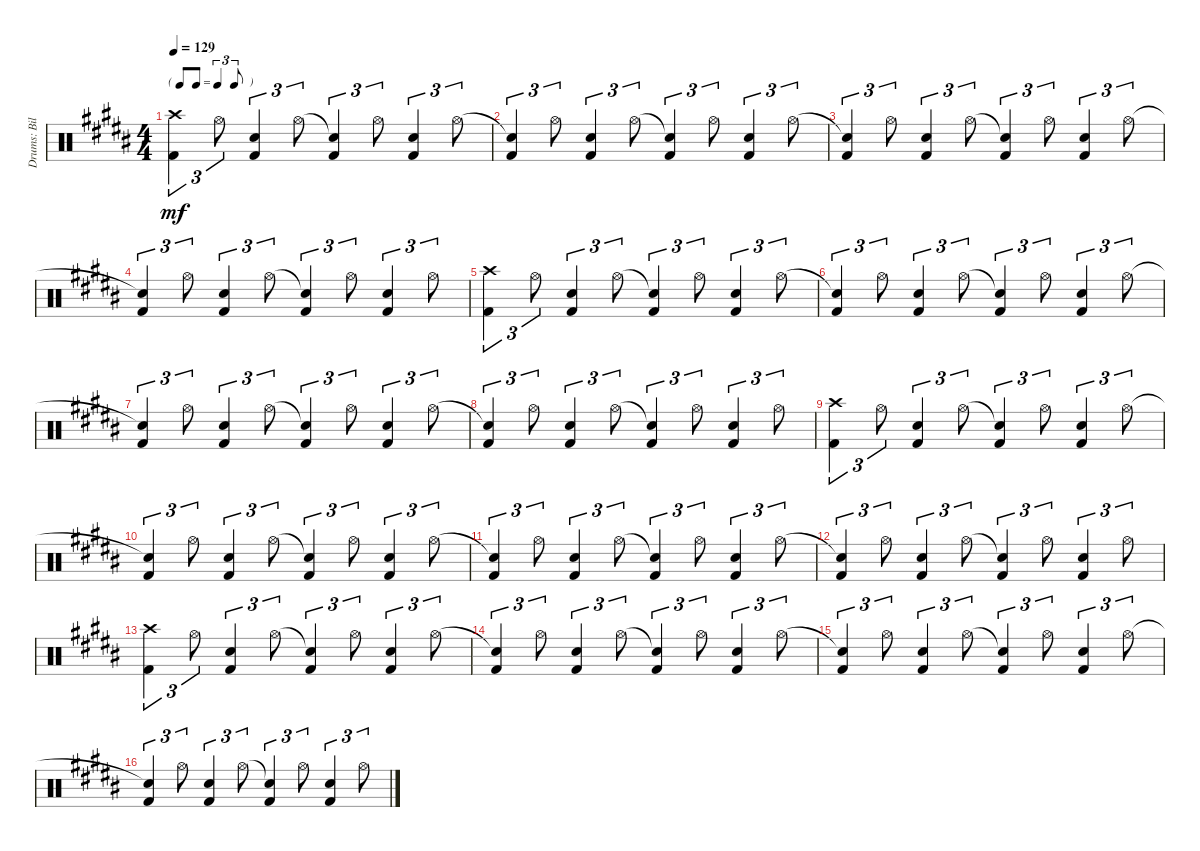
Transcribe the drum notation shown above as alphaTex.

\track ("Drums: Bill" "Drums: Bil") {instrument percussion}
\staff {score}
\articulation defaults
\ts (4 4)
\tf triplet8th
\tempo 129
\clef neutral
\ks b
("Crash high (hit)" "Kick (hit) 2").4{tu (3 2) dy mf} "Hi-Hat (open)".8{tu (3 2)} ("Electric Snare (hit)" "Kick (hit) 2").4{tu (3 2)} "Hi-Hat (open)".8{tu (3 2)} ("Snare (hit)"{t} "Kick (hit) 2").4{tu (3 2)} "Hi-Hat (open)".8{tu (3 2)} ("Electric Snare (hit)" "Kick (hit) 2").4{tu (3 2)} "Hi-Hat (open)".8{tu (3 2)} |
("Snare (hit)"{t} "Kick (hit) 2").4{tu (3 2)} "Hi-Hat (open)".8{tu (3 2)} ("Electric Snare (hit)" "Kick (hit) 2").4{tu (3 2)} "Hi-Hat (open)".8{tu (3 2)} ("Snare (hit)"{t} "Kick (hit) 2").4{tu (3 2)} "Hi-Hat (open)".8{tu (3 2)} ("Electric Snare (hit)" "Kick (hit) 2").4{tu (3 2)} "Hi-Hat (open)".8{tu (3 2)} |
("Snare (hit)"{t} "Kick (hit) 2").4{tu (3 2)} "Hi-Hat (open)".8{tu (3 2)} ("Electric Snare (hit)" "Kick (hit) 2").4{tu (3 2)} "Hi-Hat (open)".8{tu (3 2)} ("Snare (hit)"{t} "Kick (hit) 2").4{tu (3 2)} "Hi-Hat (open)".8{tu (3 2)} ("Electric Snare (hit)" "Kick (hit) 2").4{tu (3 2)} "Hi-Hat (open)".8{tu (3 2)} |
("Snare (hit)"{t} "Kick (hit) 2").4{tu (3 2)} "Hi-Hat (open)".8{tu (3 2)} ("Electric Snare (hit)" "Kick (hit) 2").4{tu (3 2)} "Hi-Hat (open)".8{tu (3 2)} ("Snare (hit)"{t} "Kick (hit) 2").4{tu (3 2)} "Hi-Hat (open)".8{tu (3 2)} ("Electric Snare (hit)" "Kick (hit) 2").4{tu (3 2)} "Hi-Hat (open)".8{tu (3 2)} |
("Crash high (hit)" "Kick (hit) 2").4{tu (3 2)} "Hi-Hat (open)".8{tu (3 2)} ("Electric Snare (hit)" "Kick (hit) 2").4{tu (3 2)} "Hi-Hat (open)".8{tu (3 2)} ("Snare (hit)"{t} "Kick (hit) 2").4{tu (3 2)} "Hi-Hat (open)".8{tu (3 2)} ("Electric Snare (hit)" "Kick (hit) 2").4{tu (3 2)} "Hi-Hat (open)".8{tu (3 2)} |
("Snare (hit)"{t} "Kick (hit) 2").4{tu (3 2)} "Hi-Hat (open)".8{tu (3 2)} ("Electric Snare (hit)" "Kick (hit) 2").4{tu (3 2)} "Hi-Hat (open)".8{tu (3 2)} ("Snare (hit)"{t} "Kick (hit) 2").4{tu (3 2)} "Hi-Hat (open)".8{tu (3 2)} ("Electric Snare (hit)" "Kick (hit) 2").4{tu (3 2)} "Hi-Hat (open)".8{tu (3 2)} |
("Snare (hit)"{t} "Kick (hit) 2").4{tu (3 2)} "Hi-Hat (open)".8{tu (3 2)} ("Electric Snare (hit)" "Kick (hit) 2").4{tu (3 2)} "Hi-Hat (open)".8{tu (3 2)} ("Snare (hit)"{t} "Kick (hit) 2").4{tu (3 2)} "Hi-Hat (open)".8{tu (3 2)} ("Electric Snare (hit)" "Kick (hit) 2").4{tu (3 2)} "Hi-Hat (open)".8{tu (3 2)} |
("Snare (hit)"{t} "Kick (hit) 2").4{tu (3 2)} "Hi-Hat (open)".8{tu (3 2)} ("Electric Snare (hit)" "Kick (hit) 2").4{tu (3 2)} "Hi-Hat (open)".8{tu (3 2)} ("Snare (hit)"{t} "Kick (hit) 2").4{tu (3 2)} "Hi-Hat (open)".8{tu (3 2)} ("Electric Snare (hit)" "Kick (hit) 2").4{tu (3 2)} "Hi-Hat (open)".8{tu (3 2)} |
("Crash high (hit)" "Kick (hit) 2").4{tu (3 2)} "Hi-Hat (open)".8{tu (3 2)} ("Electric Snare (hit)" "Kick (hit) 2").4{tu (3 2)} "Hi-Hat (open)".8{tu (3 2)} ("Snare (hit)"{t} "Kick (hit) 2").4{tu (3 2)} "Hi-Hat (open)".8{tu (3 2)} ("Electric Snare (hit)" "Kick (hit) 2").4{tu (3 2)} "Hi-Hat (open)".8{tu (3 2)} |
("Snare (hit)"{t} "Kick (hit) 2").4{tu (3 2)} "Hi-Hat (open)".8{tu (3 2)} ("Electric Snare (hit)" "Kick (hit) 2").4{tu (3 2)} "Hi-Hat (open)".8{tu (3 2)} ("Snare (hit)"{t} "Kick (hit) 2").4{tu (3 2)} "Hi-Hat (open)".8{tu (3 2)} ("Electric Snare (hit)" "Kick (hit) 2").4{tu (3 2)} "Hi-Hat (open)".8{tu (3 2)} |
("Snare (hit)"{t} "Kick (hit) 2").4{tu (3 2)} "Hi-Hat (open)".8{tu (3 2)} ("Electric Snare (hit)" "Kick (hit) 2").4{tu (3 2)} "Hi-Hat (open)".8{tu (3 2)} ("Snare (hit)"{t} "Kick (hit) 2").4{tu (3 2)} "Hi-Hat (open)".8{tu (3 2)} ("Electric Snare (hit)" "Kick (hit) 2").4{tu (3 2)} "Hi-Hat (open)".8{tu (3 2)} |
("Snare (hit)"{t} "Kick (hit) 2").4{tu (3 2)} "Hi-Hat (open)".8{tu (3 2)} ("Electric Snare (hit)" "Kick (hit) 2").4{tu (3 2)} "Hi-Hat (open)".8{tu (3 2)} ("Snare (hit)"{t} "Kick (hit) 2").4{tu (3 2)} "Hi-Hat (open)".8{tu (3 2)} ("Electric Snare (hit)" "Kick (hit) 2").4{tu (3 2)} "Hi-Hat (open)".8{tu (3 2)} |
("Crash high (hit)" "Kick (hit) 2").4{tu (3 2)} "Hi-Hat (open)".8{tu (3 2)} ("Electric Snare (hit)" "Kick (hit) 2").4{tu (3 2)} "Hi-Hat (open)".8{tu (3 2)} ("Snare (hit)"{t} "Kick (hit) 2").4{tu (3 2)} "Hi-Hat (open)".8{tu (3 2)} ("Electric Snare (hit)" "Kick (hit) 2").4{tu (3 2)} "Hi-Hat (open)".8{tu (3 2)} |
("Snare (hit)"{t} "Kick (hit) 2").4{tu (3 2)} "Hi-Hat (open)".8{tu (3 2)} ("Electric Snare (hit)" "Kick (hit) 2").4{tu (3 2)} "Hi-Hat (open)".8{tu (3 2)} ("Snare (hit)"{t} "Kick (hit) 2").4{tu (3 2)} "Hi-Hat (open)".8{tu (3 2)} ("Electric Snare (hit)" "Kick (hit) 2").4{tu (3 2)} "Hi-Hat (open)".8{tu (3 2)} |
("Snare (hit)"{t} "Kick (hit) 2").4{tu (3 2)} "Hi-Hat (open)".8{tu (3 2)} ("Electric Snare (hit)" "Kick (hit) 2").4{tu (3 2)} "Hi-Hat (open)".8{tu (3 2)} ("Snare (hit)"{t} "Kick (hit) 2").4{tu (3 2)} "Hi-Hat (open)".8{tu (3 2)} ("Electric Snare (hit)" "Kick (hit) 2").4{tu (3 2)} "Hi-Hat (open)".8{tu (3 2)} |
("Snare (hit)"{t} "Kick (hit) 2").4{tu (3 2)} "Hi-Hat (open)".8{tu (3 2)} ("Electric Snare (hit)" "Kick (hit) 2").4{tu (3 2)} "Hi-Hat (open)".8{tu (3 2)} ("Snare (hit)"{t} "Kick (hit) 2").4{tu (3 2)} "Hi-Hat (open)".8{tu (3 2)} ("Electric Snare (hit)" "Kick (hit) 2").4{tu (3 2)} "Hi-Hat (open)".8{tu (3 2)}
